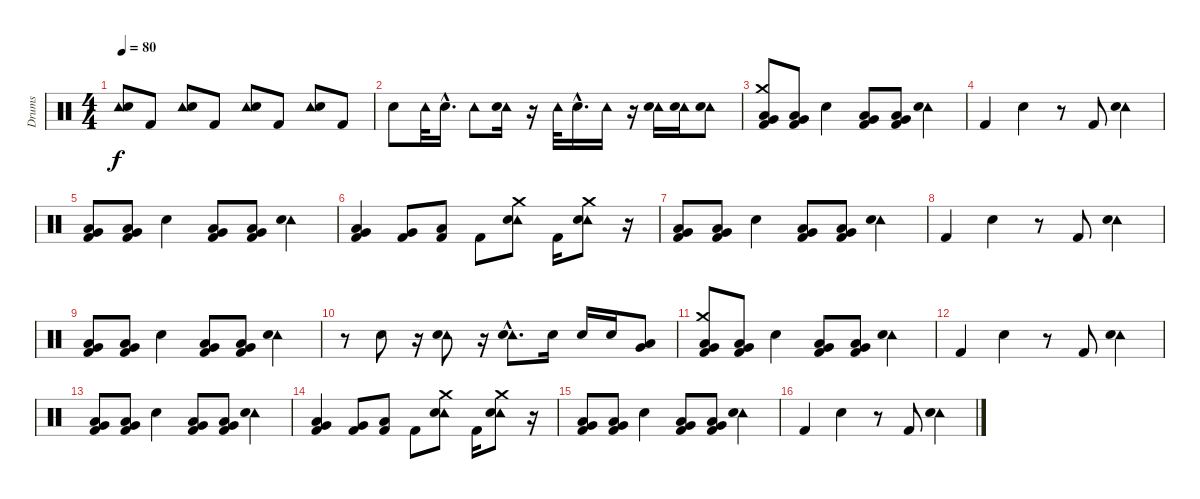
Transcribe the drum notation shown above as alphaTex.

\track ("Drums" "Drums") {instrument percussion}
\staff {score}
\articulation defaults
\ts (4 4)
\tempo 80
\clef neutral
\ks c
("Tambourine (hit)" "Electric Snare (hit)").8{dy f} "Kick (hit) 2".8 ("Tambourine (hit)" "Electric Snare (hit)").8 "Kick (hit) 2".8 ("Tambourine (hit)" "Electric Snare (hit)").8 "Kick (hit) 2".8 ("Tambourine (hit)" "Electric Snare (hit)").8 "Kick (hit) 2".8 |
"Electric Snare (hit)".8 "Tambourine (hit)".32 "Electric Snare (hit)"{hac}.16{d} "Tambourine (hit)".8 ("Tambourine (hit)" "Electric Snare (hit)").16 r.16 "Tambourine (hit)".32 "Electric Snare (hit)"{hac}.16{d} "Tambourine (hit)".16 r.16 ("Tambourine (hit)" "Electric Snare (hit)").16 ("Tambourine (hit)" "Electric Snare (hit)").16 ("Tambourine (hit)" "Electric Snare (hit)").8 |
("Crash medium (hit)" "Very Low Tom (hit)" "Kick (hit) 2" "Low Floor Tom (hit)").8 ("Very Low Tom (hit)" "Kick (hit) 2" "Low Floor Tom (hit)").8 "Electric Snare (hit)".4 ("Very Low Tom (hit)" "Kick (hit) 2" "Low Floor Tom (hit)").8 ("Very Low Tom (hit)" "Kick (hit) 2" "Low Floor Tom (hit)").8 ("Tambourine (hit)" "Electric Snare (hit)").4 |
"Kick (hit) 2".4 "Electric Snare (hit)".4 r.8 "Kick (hit) 2".8 ("Tambourine (hit)" "Electric Snare (hit)").4 |
("Very Low Tom (hit)" "Kick (hit) 2" "Low Floor Tom (hit)").8 ("Very Low Tom (hit)" "Kick (hit) 2" "Low Floor Tom (hit)").8 "Electric Snare (hit)".4 ("Very Low Tom (hit)" "Kick (hit) 2" "Low Floor Tom (hit)").8 ("Very Low Tom (hit)" "Kick (hit) 2" "Low Floor Tom (hit)").8 ("Tambourine (hit)" "Electric Snare (hit)").4 |
("Very Low Tom (hit)" "Kick (hit) 2" "Low Floor Tom (hit)").4 ("Very Low Tom (hit)" "Kick (hit) 2").8 ("Kick (hit) 2" "Low Floor Tom (hit)").8 "Kick (hit) 2".8 ("Crash medium (hit)" "Tambourine (hit)" "Electric Snare (hit)").8 "Kick (hit) 2".16 ("Crash medium (hit)" "Tambourine (hit)" "Electric Snare (hit)").8 r.16 |
("Very Low Tom (hit)" "Kick (hit) 2" "Low Floor Tom (hit)").8 ("Very Low Tom (hit)" "Kick (hit) 2" "Low Floor Tom (hit)").8 "Electric Snare (hit)".4 ("Very Low Tom (hit)" "Kick (hit) 2" "Low Floor Tom (hit)").8 ("Very Low Tom (hit)" "Kick (hit) 2" "Low Floor Tom (hit)").8 ("Tambourine (hit)" "Electric Snare (hit)").4 |
"Kick (hit) 2".4 "Electric Snare (hit)".4 r.8 "Kick (hit) 2".8 ("Tambourine (hit)" "Electric Snare (hit)").4 |
("Very Low Tom (hit)" "Kick (hit) 2" "Low Floor Tom (hit)").8 ("Very Low Tom (hit)" "Kick (hit) 2" "Low Floor Tom (hit)").8 "Electric Snare (hit)".4 ("Very Low Tom (hit)" "Kick (hit) 2" "Low Floor Tom (hit)").8 ("Very Low Tom (hit)" "Kick (hit) 2" "Low Floor Tom (hit)").8 ("Tambourine (hit)" "Electric Snare (hit)").4 |
r.8 "Electric Snare (hit)".8 r.16 ("Tambourine (hit)" "Electric Snare (hit)").8 r.16 ("Tambourine (hit)"{hac} "Electric Snare (hit)"{hac}).8{d} "Electric Snare (hit)".16 "Electric Snare (hit)".16 "Electric Snare (hit)".16 ("Very Low Tom (hit)" "Low Floor Tom (hit)").8 |
("Crash medium (hit)" "Very Low Tom (hit)" "Kick (hit) 2" "Low Floor Tom (hit)").8 ("Very Low Tom (hit)" "Kick (hit) 2" "Low Floor Tom (hit)").8 "Electric Snare (hit)".4 ("Very Low Tom (hit)" "Kick (hit) 2" "Low Floor Tom (hit)").8 ("Very Low Tom (hit)" "Kick (hit) 2" "Low Floor Tom (hit)").8 ("Tambourine (hit)" "Electric Snare (hit)").4 |
"Kick (hit) 2".4 "Electric Snare (hit)".4 r.8 "Kick (hit) 2".8 ("Tambourine (hit)" "Electric Snare (hit)").4 |
("Very Low Tom (hit)" "Kick (hit) 2" "Low Floor Tom (hit)").8 ("Very Low Tom (hit)" "Kick (hit) 2" "Low Floor Tom (hit)").8 "Electric Snare (hit)".4 ("Very Low Tom (hit)" "Kick (hit) 2" "Low Floor Tom (hit)").8 ("Very Low Tom (hit)" "Kick (hit) 2" "Low Floor Tom (hit)").8 ("Tambourine (hit)" "Electric Snare (hit)").4 |
("Very Low Tom (hit)" "Kick (hit) 2" "Low Floor Tom (hit)").4 ("Very Low Tom (hit)" "Kick (hit) 2").8 ("Kick (hit) 2" "Low Floor Tom (hit)").8 "Kick (hit) 2".8 ("Crash medium (hit)" "Tambourine (hit)" "Electric Snare (hit)").8 "Kick (hit) 2".16 ("Crash medium (hit)" "Tambourine (hit)" "Electric Snare (hit)").8 r.16 |
("Very Low Tom (hit)" "Kick (hit) 2" "Low Floor Tom (hit)").8 ("Very Low Tom (hit)" "Kick (hit) 2" "Low Floor Tom (hit)").8 "Electric Snare (hit)".4 ("Very Low Tom (hit)" "Kick (hit) 2" "Low Floor Tom (hit)").8 ("Very Low Tom (hit)" "Kick (hit) 2" "Low Floor Tom (hit)").8 ("Tambourine (hit)" "Electric Snare (hit)").4 |
"Kick (hit) 2".4 "Electric Snare (hit)".4 r.8 "Kick (hit) 2".8 ("Tambourine (hit)" "Electric Snare (hit)").4
